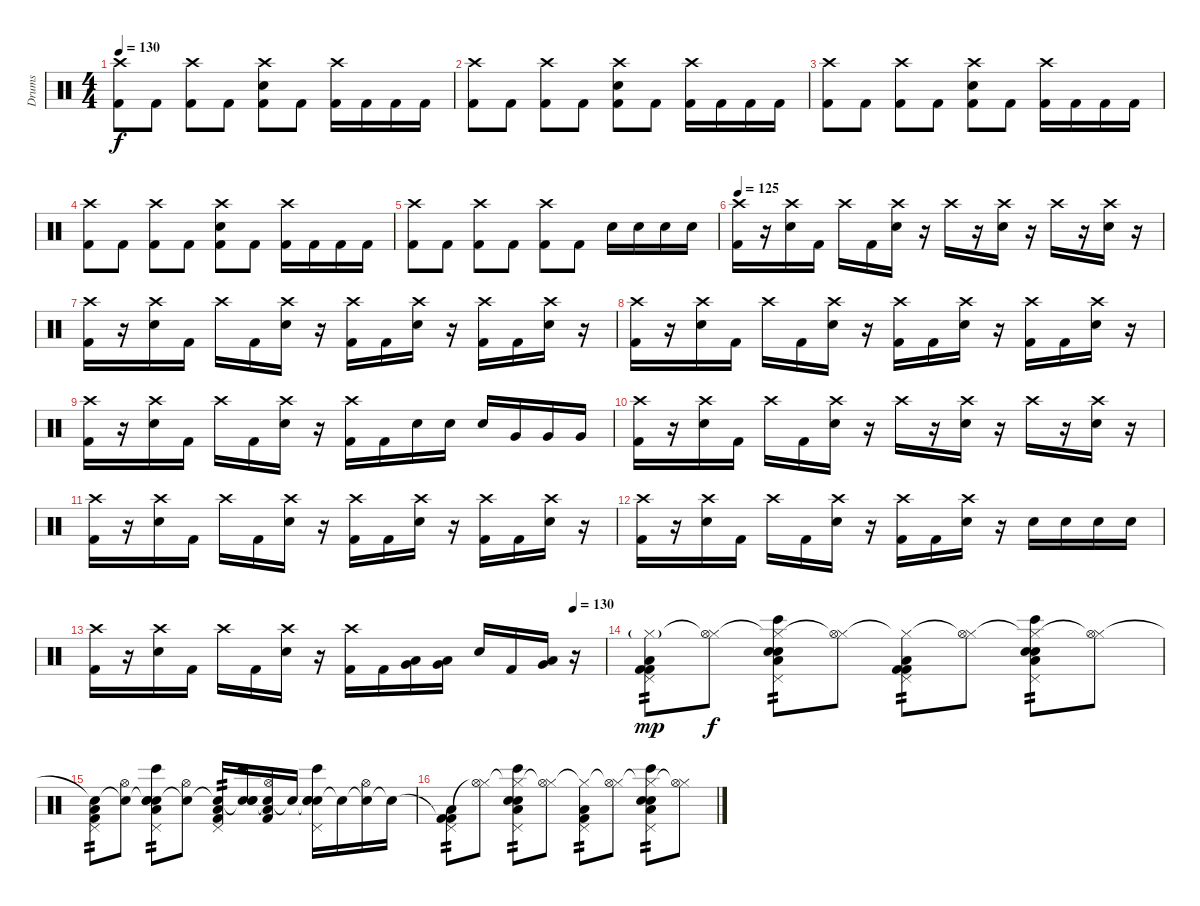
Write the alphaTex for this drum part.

\track ("Drums" "Drums") {instrument percussion}
\staff {score}
\articulation defaults
\ts (4 4)
\tempo 130
\clef neutral
\ks c
("Crash high (hit)" "Kick (hit) 2").8{dy f} "Kick (hit) 2".8 ("Crash high (hit)" "Kick (hit) 2").8 "Kick (hit) 2".8 ("Crash high (hit)" "Electric Snare (hit)" "Kick (hit) 2").8 "Kick (hit) 2".8 ("Crash high (hit)" "Kick (hit) 2").16 "Kick (hit) 2".16 "Kick (hit) 2".16 "Kick (hit) 2".16 |
("Crash high (hit)" "Kick (hit) 2").8 "Kick (hit) 2".8 ("Crash high (hit)" "Kick (hit) 2").8 "Kick (hit) 2".8 ("Crash high (hit)" "Electric Snare (hit)" "Kick (hit) 2").8 "Kick (hit) 2".8 ("Crash high (hit)" "Kick (hit) 2").16 "Kick (hit) 2".16 "Kick (hit) 2".16 "Kick (hit) 2".16 |
("Crash high (hit)" "Kick (hit) 2").8 "Kick (hit) 2".8 ("Crash high (hit)" "Kick (hit) 2").8 "Kick (hit) 2".8 ("Crash high (hit)" "Electric Snare (hit)" "Kick (hit) 2").8 "Kick (hit) 2".8 ("Crash high (hit)" "Kick (hit) 2").16 "Kick (hit) 2".16 "Kick (hit) 2".16 "Kick (hit) 2".16 |
("Crash high (hit)" "Kick (hit) 2").8 "Kick (hit) 2".8 ("Crash high (hit)" "Kick (hit) 2").8 "Kick (hit) 2".8 ("Crash high (hit)" "Electric Snare (hit)" "Kick (hit) 2").8 "Kick (hit) 2".8 ("Crash high (hit)" "Kick (hit) 2").16 "Kick (hit) 2".16 "Kick (hit) 2".16 "Kick (hit) 2".16 |
("Crash high (hit)" "Kick (hit) 2").8 "Kick (hit) 2".8 ("Crash high (hit)" "Kick (hit) 2").8 "Kick (hit) 2".8 ("Crash high (hit)" "Kick (hit) 2").8 "Kick (hit) 2".8 "Electric Snare (hit)".16 "Electric Snare (hit)".16 "Electric Snare (hit)".16 "Electric Snare (hit)".16 |
\tempo 125
("Crash high (hit)" "Kick (hit) 2").16 r.16 ("Crash high (hit)" "Electric Snare (hit)").16 "Kick (hit) 2".16 "Crash high (hit)".16 "Kick (hit) 2".16 ("Crash high (hit)" "Electric Snare (hit)").16 r.16 "Crash high (hit)".16 r.16 ("Crash high (hit)" "Electric Snare (hit)").16 r.16 "Crash high (hit)".16 r.16 ("Crash high (hit)" "Electric Snare (hit)").16 r.16 |
("Crash high (hit)" "Kick (hit) 2").16 r.16 ("Crash high (hit)" "Electric Snare (hit)").16 "Kick (hit) 2".16 "Crash high (hit)".16 "Kick (hit) 2".16 ("Crash high (hit)" "Electric Snare (hit)").16 r.16 ("Crash high (hit)" "Kick (hit) 2").16 "Kick (hit) 2".16 ("Crash high (hit)" "Electric Snare (hit)").16 r.16 ("Crash high (hit)" "Kick (hit) 2").16 "Kick (hit) 2".16 ("Crash high (hit)" "Electric Snare (hit)").16 r.16 |
("Crash high (hit)" "Kick (hit) 2").16 r.16 ("Crash high (hit)" "Electric Snare (hit)").16 "Kick (hit) 2".16 "Crash high (hit)".16 "Kick (hit) 2".16 ("Crash high (hit)" "Electric Snare (hit)").16 r.16 ("Crash high (hit)" "Kick (hit) 2").16 "Kick (hit) 2".16 ("Crash high (hit)" "Electric Snare (hit)").16 r.16 ("Crash high (hit)" "Kick (hit) 2").16 "Kick (hit) 2".16 ("Crash high (hit)" "Electric Snare (hit)").16 r.16 |
("Crash high (hit)" "Kick (hit) 2").16 r.16 ("Crash high (hit)" "Electric Snare (hit)").16 "Kick (hit) 2".16 "Crash high (hit)".16 "Kick (hit) 2".16 ("Crash high (hit)" "Electric Snare (hit)").16 r.16 ("Crash high (hit)" "Kick (hit) 2").16 "Kick (hit) 2".16 "Electric Snare (hit)".16 "Electric Snare (hit)".16 "Electric Snare (hit)".16 "Very Low Tom (hit)".16 "Very Low Tom (hit)".16 "Very Low Tom (hit)".16 |
("Crash high (hit)" "Kick (hit) 2").16 r.16 ("Crash high (hit)" "Electric Snare (hit)").16 "Kick (hit) 2".16 "Crash high (hit)".16 "Kick (hit) 2".16 ("Crash high (hit)" "Electric Snare (hit)").16 r.16 "Crash high (hit)".16 r.16 ("Crash high (hit)" "Electric Snare (hit)").16 r.16 "Crash high (hit)".16 r.16 ("Crash high (hit)" "Electric Snare (hit)").16 r.16 |
("Crash high (hit)" "Kick (hit) 2").16 r.16 ("Crash high (hit)" "Electric Snare (hit)").16 "Kick (hit) 2".16 "Crash high (hit)".16 "Kick (hit) 2".16 ("Crash high (hit)" "Electric Snare (hit)").16 r.16 ("Crash high (hit)" "Kick (hit) 2").16 "Kick (hit) 2".16 ("Crash high (hit)" "Electric Snare (hit)").16 r.16 ("Crash high (hit)" "Kick (hit) 2").16 "Kick (hit) 2".16 ("Crash high (hit)" "Electric Snare (hit)").16 r.16 |
("Crash high (hit)" "Kick (hit) 2").16 r.16 ("Crash high (hit)" "Electric Snare (hit)").16 "Kick (hit) 2".16 "Crash high (hit)".16 "Kick (hit) 2".16 ("Crash high (hit)" "Electric Snare (hit)").16 r.16 ("Crash high (hit)" "Kick (hit) 2").16 "Kick (hit) 2".16 ("Crash high (hit)" "Electric Snare (hit)").16 r.16 "Electric Snare (hit)".16 "Electric Snare (hit)".16 "Electric Snare (hit)".16 "Electric Snare (hit)".16 |
\tempo (130 0.9375)
("Crash high (hit)" "Kick (hit) 2").16 r.16 ("Crash high (hit)" "Electric Snare (hit)").16 "Kick (hit) 2".16 "Crash high (hit)".16 "Kick (hit) 2".16 ("Crash high (hit)" "Electric Snare (hit)").16 r.16 ("Crash high (hit)" "Kick (hit) 2").16 "Kick (hit) 2".16 ("Low Floor Tom (hit)" "Very Low Tom (hit)").16 ("Low Floor Tom (hit)" "Very Low Tom (hit)").16 "Electric Snare (hit)".16 "Kick (hit) 2".16 ("Low Floor Tom (hit)" "Very Low Tom (hit)").16 r.16{volume 16} |
("Hi-Hat (closed)"{g} "Pedal Hi-Hat (hit)" "Kick (hit) 2" "Kick (hit) 2" "Low Floor Tom (hit)").8{tp 2 dy mp} ("Hi-Hat (closed)"{t} "Hi-Hat (open)").8{dy f} ("Hi-Hat (closed)"{t} "Electric Snare (hit)" "Pedal Hi-Hat (hit)" "Bongo High (hit)" "Hand Clap (hit)" "Low Floor Tom (hit)").8{tp 2} ("Hi-Hat (closed)"{t} "Hi-Hat (open)").8 ("Hi-Hat (closed)"{t} "Pedal Hi-Hat (hit)" "Kick (hit) 2" "Kick (hit) 2" "Low Floor Tom (hit)").8{tp 2} ("Hi-Hat (closed)"{t} "Hi-Hat (open)").8 ("Hi-Hat (closed)"{t} "Electric Snare (hit)" "Pedal Hi-Hat (hit)" "Bongo High (hit)" "Hand Clap (hit)" "Low Floor Tom (hit)").8{tp 2} ("Hi-Hat (closed)"{t} "Hi-Hat (open)").8 |
("Snare (hit)"{t} "Pedal Hi-Hat (hit)" "Kick (hit) 2" "Low Floor Tom (hit)").8{tp 2} ("Snare (hit)"{t} "Hi-Hat (open)").8 ("Snare (hit)"{t} "Electric Snare (hit)" "Pedal Hi-Hat (hit)" "Bongo High (hit)" "Hand Clap (hit)" "Low Floor Tom (hit)").8{tp 2} ("Snare (hit)"{t} "Hi-Hat (open)").8 ("Snare (hit)"{t} "Pedal Hi-Hat (hit)" "Kick (hit) 2" "Low Floor Tom (hit)").16{tp 2} ("Snare (hit)"{t} "Electric Snare (hit)" "Bongo High (hit)" "Hand Clap (hit)").16 ("Snare (hit)"{t} "Hi-Hat (open)" "Low Floor Tom (hit)" "Kick (hit) 2").16 "Snare (hit)"{t}.16 ("Snare (hit)"{t} "Electric Snare (hit)" "Pedal Hi-Hat (hit)" "Bongo High (hit)" "Hand Clap (hit)").16 "Snare (hit)"{t}.16 ("Snare (hit)"{t} "Hi-Hat (open)").16 "Snare (hit)"{t}.16 |
("Kick (hit) 2"{t} "Pedal Hi-Hat (hit)" "Kick (hit) 2" "Low Floor Tom (hit)").8{tp 2} ("Hi-Hat (closed)"{t} "Hi-Hat (open)").8 ("Hi-Hat (closed)"{t} "Electric Snare (hit)" "Pedal Hi-Hat (hit)" "Bongo High (hit)" "Hand Clap (hit)" "Low Floor Tom (hit)").8{tp 2} ("Hi-Hat (closed)"{t} "Hi-Hat (open)").8 ("Hi-Hat (closed)"{t} "Pedal Hi-Hat (hit)" "Kick (hit) 2" "Low Floor Tom (hit)").8{tp 2} ("Hi-Hat (closed)"{t} "Hi-Hat (open)").8 ("Hi-Hat (closed)"{t} "Electric Snare (hit)" "Pedal Hi-Hat (hit)" "Bongo High (hit)" "Hand Clap (hit)" "Low Floor Tom (hit)").8{tp 2} ("Hi-Hat (closed)"{t} "Hi-Hat (open)").8
